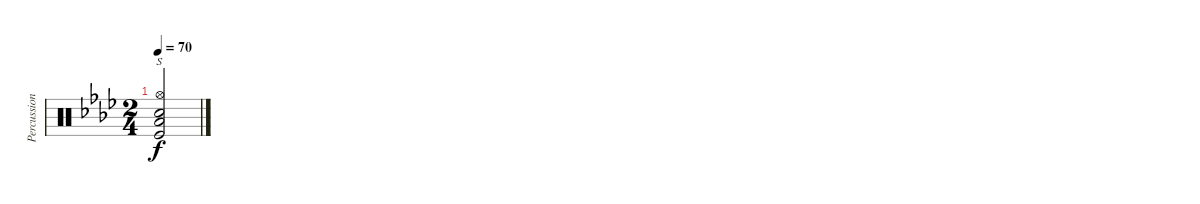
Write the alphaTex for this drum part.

\track ("Percussion" "Percussion") {instrument percussion}
\staff {score}
\articulation defaults
\ts (2 4)
\tempo 70
\clef neutral
\ks fminor
("Kick (hit)" "Low Floor Tom (hit)" "Hi-Hat (open)" "Electric Snare (hit)").2{s dy f}
